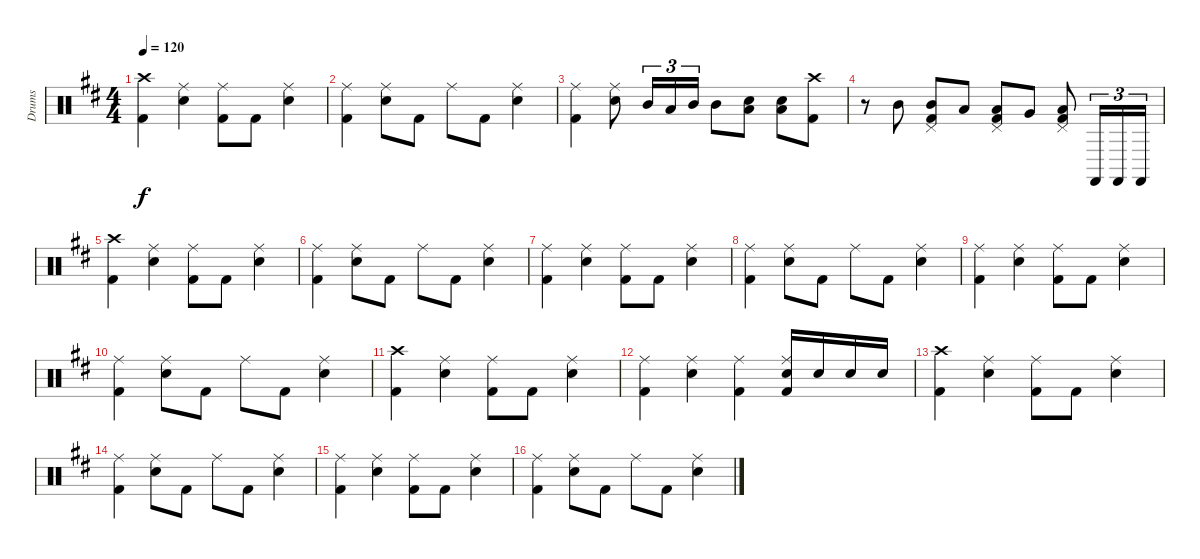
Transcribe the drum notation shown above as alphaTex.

\track ("Drums" "Drums") {instrument percussion}
\staff {score}
\articulation defaults
\ts (4 4)
\tempo 120
\clef neutral
\ks bminor
("Crash high (hit)" "Kick (hit) 2").4{dy f} ("Ride (middle)" "Electric Snare (hit)").4 ("Ride (middle)" "Kick (hit) 2").8 "Kick (hit) 2".8 ("Ride (middle)" "Electric Snare (hit)").4 |
("Ride (middle)" "Kick (hit) 2").4 ("Ride (middle)" "Electric Snare (hit)").8 "Kick (hit) 2".8 "Ride (middle)".8 "Kick (hit) 2".8 ("Ride (middle)" "Electric Snare (hit)").4 |
("Ride (middle)" "Kick (hit) 2").4 ("Ride (middle)" "Electric Snare (hit)").8 "Mid Tom (hit)".16{tu (3 2)} "Low Tom (hit)".16{tu (3 2)} "Mid Tom (hit)".16{tu (3 2)} "Mid Tom (hit)".8 ("Low Floor Tom (hit)" "Electric Snare (hit)").8 ("Low Floor Tom (hit)" "Electric Snare (hit)").8 ("Crash high (hit)" "Kick (hit) 2").8 |
r.8 "Mid Tom (hit)".8 ("Pedal Hi-Hat (hit)" "Mid Tom (hit)" "Kick (hit) 2").8 "Low Tom (hit)".8 ("Pedal Hi-Hat (hit)" "Low Tom (hit)" "Kick (hit) 2").8 "Very Low Tom (hit)".8 ("Pedal Hi-Hat (hit)" "Low Floor Tom (hit)" "Kick (hit) 2").8 "Castanets (hit)".16{tu (3 2)} "Castanets (hit)".16{tu (3 2)} "Castanets (hit)".16{tu (3 2)} |
("Crash high (hit)" "Kick (hit) 2").4 ("Ride (middle)" "Electric Snare (hit)").4 ("Ride (middle)" "Kick (hit) 2").8 "Kick (hit) 2".8 ("Ride (middle)" "Electric Snare (hit)").4 |
("Ride (middle)" "Kick (hit) 2").4 ("Ride (middle)" "Electric Snare (hit)").8 "Kick (hit) 2".8 "Ride (middle)".8 "Kick (hit) 2".8 ("Ride (middle)" "Electric Snare (hit)").4 |
("Ride (middle)" "Kick (hit) 2").4 ("Ride (middle)" "Electric Snare (hit)").4 ("Ride (middle)" "Kick (hit) 2").8 "Kick (hit) 2".8 ("Ride (middle)" "Electric Snare (hit)").4 |
("Ride (middle)" "Kick (hit) 2").4 ("Ride (middle)" "Electric Snare (hit)").8 "Kick (hit) 2".8 "Ride (middle)".8 "Kick (hit) 2".8 ("Ride (middle)" "Electric Snare (hit)").4 |
("Ride (middle)" "Kick (hit) 2").4 ("Ride (middle)" "Electric Snare (hit)").4 ("Ride (middle)" "Kick (hit) 2").8 "Kick (hit) 2".8 ("Ride (middle)" "Electric Snare (hit)").4 |
("Ride (middle)" "Kick (hit) 2").4 ("Ride (middle)" "Electric Snare (hit)").8 "Kick (hit) 2".8 "Ride (middle)".8 "Kick (hit) 2".8 ("Ride (middle)" "Electric Snare (hit)").4 |
("Crash high (hit)" "Kick (hit) 2").4 ("Ride (middle)" "Electric Snare (hit)").4 ("Ride (middle)" "Kick (hit) 2").8 "Kick (hit) 2".8 ("Ride (middle)" "Electric Snare (hit)").4 |
("Ride (middle)" "Kick (hit) 2").4 ("Ride (middle)" "Electric Snare (hit)").4 ("Ride (middle)" "Kick (hit) 2").4 ("Ride (middle)" "Electric Snare (hit)" "Kick (hit) 2").16 "Electric Snare (hit)".16 "Electric Snare (hit)".16 "Electric Snare (hit)".16 |
("Crash high (hit)" "Kick (hit) 2").4 ("Ride (middle)" "Electric Snare (hit)").4 ("Ride (middle)" "Kick (hit) 2").8 "Kick (hit) 2".8 ("Ride (middle)" "Electric Snare (hit)").4 |
("Ride (middle)" "Kick (hit) 2").4 ("Ride (middle)" "Electric Snare (hit)").8 "Kick (hit) 2".8 "Ride (middle)".8 "Kick (hit) 2".8 ("Ride (middle)" "Electric Snare (hit)").4 |
("Ride (middle)" "Kick (hit) 2").4 ("Ride (middle)" "Electric Snare (hit)").4 ("Ride (middle)" "Kick (hit) 2").8 "Kick (hit) 2".8 ("Ride (middle)" "Electric Snare (hit)").4 |
("Ride (middle)" "Kick (hit) 2").4 ("Ride (middle)" "Electric Snare (hit)").8 "Kick (hit) 2".8 "Ride (middle)".8 "Kick (hit) 2".8 ("Ride (middle)" "Electric Snare (hit)").4
